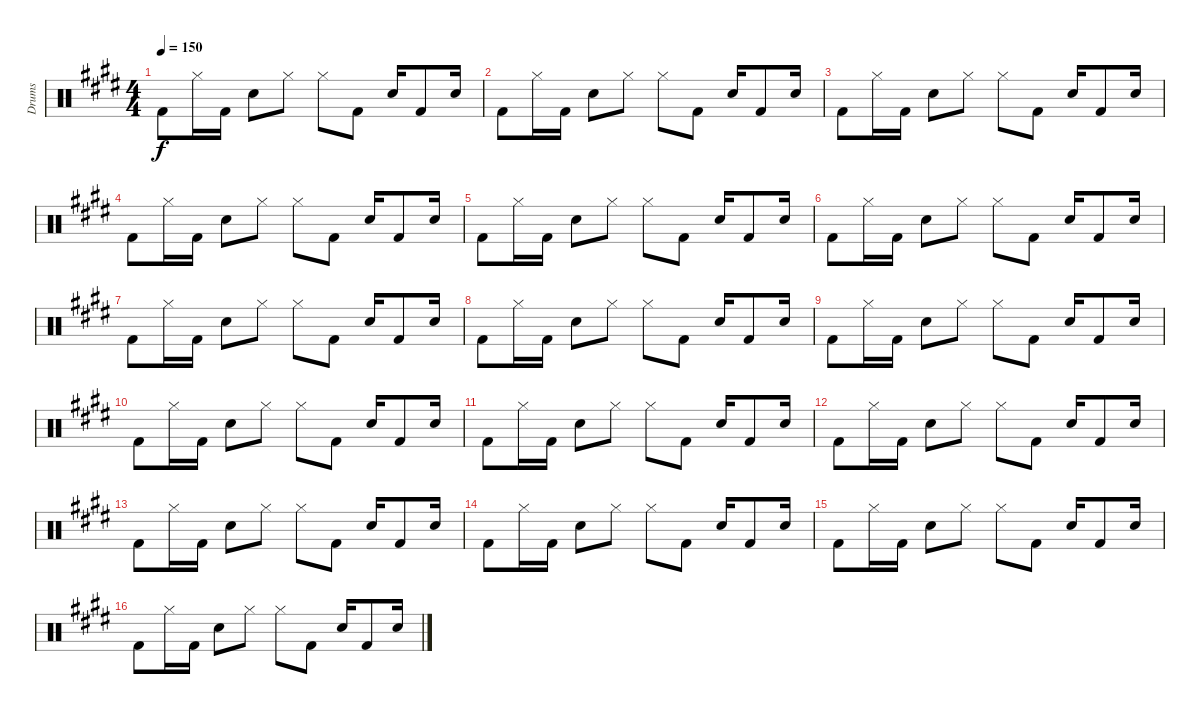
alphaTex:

\track ("Drums" "Drums") {instrument percussion bank 15}
\staff {score}
\articulation defaults
\ts (4 4)
\tempo 150
\clef neutral
\ks e "Kick (hit) 2".8{dy f} "Hi-Hat (closed)".16 "Kick (hit) 2".16 "Snare (hit) 2".8 "Hi-Hat (closed)".8 "Hi-Hat (closed)".8 "Kick (hit) 2".8 "Snare (hit) 2".16 "Kick (hit) 2".8 "Snare (hit) 2".16
|
"Kick (hit) 2".8 "Hi-Hat (closed)".16 "Kick (hit) 2".16 "Snare (hit) 2".8 "Hi-Hat (closed)".8 "Hi-Hat (closed)".8 "Kick (hit) 2".8 "Snare (hit) 2".16 "Kick (hit) 2".8 "Snare (hit) 2".16 |
"Kick (hit) 2".8 "Hi-Hat (closed)".16 "Kick (hit) 2".16 "Snare (hit) 2".8 "Hi-Hat (closed)".8 "Hi-Hat (closed)".8 "Kick (hit) 2".8 "Snare (hit) 2".16 "Kick (hit) 2".8 "Snare (hit) 2".16 |
"Kick (hit) 2".8 "Hi-Hat (closed)".16 "Kick (hit) 2".16 "Snare (hit) 2".8 "Hi-Hat (closed)".8 "Hi-Hat (closed)".8 "Kick (hit) 2".8 "Snare (hit) 2".16 "Kick (hit) 2".8 "Snare (hit) 2".16 |
"Kick (hit) 2".8 "Hi-Hat (closed)".16 "Kick (hit) 2".16 "Snare (hit) 2".8 "Hi-Hat (closed)".8 "Hi-Hat (closed)".8 "Kick (hit) 2".8 "Snare (hit) 2".16 "Kick (hit) 2".8 "Snare (hit) 2".16 |
"Kick (hit) 2".8 "Hi-Hat (closed)".16 "Kick (hit) 2".16 "Snare (hit) 2".8 "Hi-Hat (closed)".8 "Hi-Hat (closed)".8 "Kick (hit) 2".8 "Snare (hit) 2".16 "Kick (hit) 2".8 "Snare (hit) 2".16 |
"Kick (hit) 2".8 "Hi-Hat (closed)".16 "Kick (hit) 2".16 "Snare (hit) 2".8 "Hi-Hat (closed)".8 "Hi-Hat (closed)".8 "Kick (hit) 2".8 "Snare (hit) 2".16 "Kick (hit) 2".8 "Snare (hit) 2".16 |
"Kick (hit) 2".8 "Hi-Hat (closed)".16 "Kick (hit) 2".16 "Snare (hit) 2".8 "Hi-Hat (closed)".8 "Hi-Hat (closed)".8 "Kick (hit) 2".8 "Snare (hit) 2".16 "Kick (hit) 2".8 "Snare (hit) 2".16 |
"Kick (hit) 2".8 "Hi-Hat (closed)".16 "Kick (hit) 2".16 "Snare (hit) 2".8 "Hi-Hat (closed)".8 "Hi-Hat (closed)".8 "Kick (hit) 2".8 "Snare (hit) 2".16 "Kick (hit) 2".8 "Snare (hit) 2".16 |
"Kick (hit) 2".8 "Hi-Hat (closed)".16 "Kick (hit) 2".16 "Snare (hit) 2".8 "Hi-Hat (closed)".8 "Hi-Hat (closed)".8 "Kick (hit) 2".8 "Snare (hit) 2".16 "Kick (hit) 2".8 "Snare (hit) 2".16 |
"Kick (hit) 2".8 "Hi-Hat (closed)".16 "Kick (hit) 2".16 "Snare (hit) 2".8 "Hi-Hat (closed)".8 "Hi-Hat (closed)".8 "Kick (hit) 2".8 "Snare (hit) 2".16 "Kick (hit) 2".8 "Snare (hit) 2".16 |
"Kick (hit) 2".8 "Hi-Hat (closed)".16 "Kick (hit) 2".16 "Snare (hit) 2".8 "Hi-Hat (closed)".8 "Hi-Hat (closed)".8 "Kick (hit) 2".8 "Snare (hit) 2".16 "Kick (hit) 2".8 "Snare (hit) 2".16 |
"Kick (hit) 2".8 "Hi-Hat (closed)".16 "Kick (hit) 2".16 "Snare (hit) 2".8 "Hi-Hat (closed)".8 "Hi-Hat (closed)".8 "Kick (hit) 2".8 "Snare (hit) 2".16 "Kick (hit) 2".8 "Snare (hit) 2".16 |
"Kick (hit) 2".8 "Hi-Hat (closed)".16 "Kick (hit) 2".16 "Snare (hit) 2".8 "Hi-Hat (closed)".8 "Hi-Hat (closed)".8 "Kick (hit) 2".8 "Snare (hit) 2".16 "Kick (hit) 2".8 "Snare (hit) 2".16 |
"Kick (hit) 2".8 "Hi-Hat (closed)".16 "Kick (hit) 2".16 "Snare (hit) 2".8 "Hi-Hat (closed)".8 "Hi-Hat (closed)".8 "Kick (hit) 2".8 "Snare (hit) 2".16 "Kick (hit) 2".8 "Snare (hit) 2".16 |
"Kick (hit) 2".8 "Hi-Hat (closed)".16 "Kick (hit) 2".16 "Snare (hit) 2".8 "Hi-Hat (closed)".8 "Hi-Hat (closed)".8 "Kick (hit) 2".8 "Snare (hit) 2".16 "Kick (hit) 2".8 "Snare (hit) 2".16
